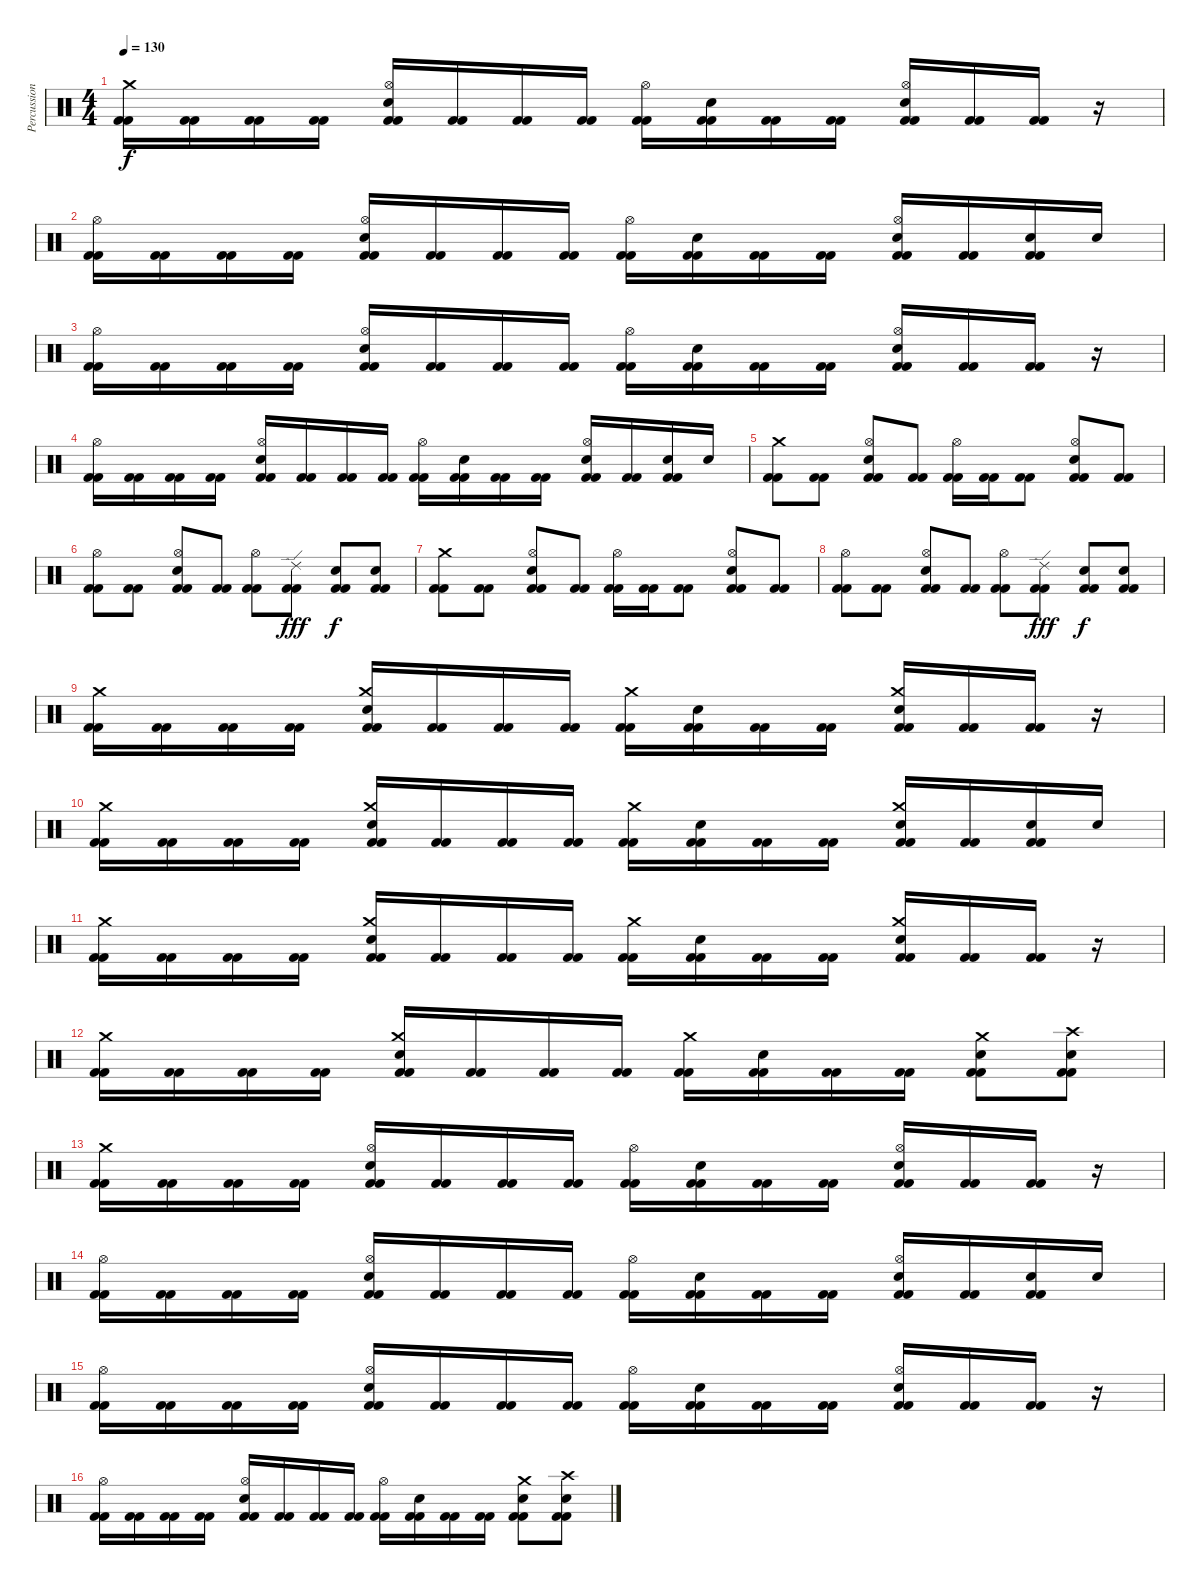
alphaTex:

\track ("Percussion" "Percussion") {instrument percussion}
\staff {score}
\articulation defaults
\ts (4 4)
\tempo 130
\clef neutral
\ks c
("Kick (hit) 2" "Kick (hit) 2" "Crash medium (hit)").16{dy f} ("Kick (hit) 2" "Kick (hit) 2").16 ("Kick (hit) 2" "Kick (hit) 2").16 ("Kick (hit) 2" "Kick (hit) 2").16 ("Kick (hit) 2" "Kick (hit) 2" "Hi-Hat (open)" "Electric Snare (hit)").16 ("Kick (hit) 2" "Kick (hit) 2").16 ("Kick (hit) 2" "Kick (hit) 2").16 ("Kick (hit) 2" "Kick (hit) 2").16 ("Kick (hit) 2" "Kick (hit) 2" "Hi-Hat (open)").16 ("Kick (hit) 2" "Kick (hit) 2" "Electric Snare (hit)").16 ("Kick (hit) 2" "Kick (hit) 2").16 ("Kick (hit) 2" "Kick (hit) 2").16 ("Kick (hit) 2" "Kick (hit) 2" "Hi-Hat (open)" "Electric Snare (hit)").16 ("Kick (hit) 2" "Kick (hit) 2").16 ("Kick (hit) 2" "Kick (hit) 2").16 r.16 |
("Kick (hit) 2" "Kick (hit) 2" "Hi-Hat (open)").16 ("Kick (hit) 2" "Kick (hit) 2").16 ("Kick (hit) 2" "Kick (hit) 2").16 ("Kick (hit) 2" "Kick (hit) 2").16 ("Kick (hit) 2" "Kick (hit) 2" "Hi-Hat (open)" "Electric Snare (hit)").16 ("Kick (hit) 2" "Kick (hit) 2").16 ("Kick (hit) 2" "Kick (hit) 2").16 ("Kick (hit) 2" "Kick (hit) 2").16 ("Kick (hit) 2" "Kick (hit) 2" "Hi-Hat (open)").16 ("Kick (hit) 2" "Kick (hit) 2" "Electric Snare (hit)").16 ("Kick (hit) 2" "Kick (hit) 2").16 ("Kick (hit) 2" "Kick (hit) 2").16 ("Kick (hit) 2" "Kick (hit) 2" "Hi-Hat (open)" "Electric Snare (hit)").16 ("Kick (hit) 2" "Kick (hit) 2").16 ("Kick (hit) 2" "Kick (hit) 2" "Electric Snare (hit)").16 "Electric Snare (hit)".16 |
("Kick (hit) 2" "Kick (hit) 2" "Hi-Hat (open)").16 ("Kick (hit) 2" "Kick (hit) 2").16 ("Kick (hit) 2" "Kick (hit) 2").16 ("Kick (hit) 2" "Kick (hit) 2").16 ("Kick (hit) 2" "Kick (hit) 2" "Hi-Hat (open)" "Electric Snare (hit)").16 ("Kick (hit) 2" "Kick (hit) 2").16 ("Kick (hit) 2" "Kick (hit) 2").16 ("Kick (hit) 2" "Kick (hit) 2").16 ("Kick (hit) 2" "Kick (hit) 2" "Hi-Hat (open)").16 ("Kick (hit) 2" "Kick (hit) 2" "Electric Snare (hit)").16 ("Kick (hit) 2" "Kick (hit) 2").16 ("Kick (hit) 2" "Kick (hit) 2").16 ("Kick (hit) 2" "Kick (hit) 2" "Hi-Hat (open)" "Electric Snare (hit)").16 ("Kick (hit) 2" "Kick (hit) 2").16 ("Kick (hit) 2" "Kick (hit) 2").16 r.16 |
("Kick (hit) 2" "Kick (hit) 2" "Hi-Hat (open)").16 ("Kick (hit) 2" "Kick (hit) 2").16 ("Kick (hit) 2" "Kick (hit) 2").16 ("Kick (hit) 2" "Kick (hit) 2").16 ("Kick (hit) 2" "Kick (hit) 2" "Hi-Hat (open)" "Electric Snare (hit)").16 ("Kick (hit) 2" "Kick (hit) 2").16 ("Kick (hit) 2" "Kick (hit) 2").16 ("Kick (hit) 2" "Kick (hit) 2").16 ("Kick (hit) 2" "Kick (hit) 2" "Hi-Hat (open)").16 ("Kick (hit) 2" "Kick (hit) 2" "Electric Snare (hit)").16 ("Kick (hit) 2" "Kick (hit) 2").16 ("Kick (hit) 2" "Kick (hit) 2").16 ("Kick (hit) 2" "Kick (hit) 2" "Hi-Hat (open)" "Electric Snare (hit)").16 ("Kick (hit) 2" "Kick (hit) 2").16 ("Kick (hit) 2" "Kick (hit) 2" "Electric Snare (hit)").16 "Electric Snare (hit)".16 |
("Kick (hit) 2" "Kick (hit) 2" "Crash medium (hit)").8 ("Kick (hit) 2" "Kick (hit) 2").8 ("Kick (hit) 2" "Kick (hit) 2" "Hi-Hat (open)" "Electric Snare (hit)").8 ("Kick (hit) 2" "Kick (hit) 2").8 ("Kick (hit) 2" "Kick (hit) 2" "Hi-Hat (open)").16 ("Kick (hit) 2" "Kick (hit) 2").16 ("Kick (hit) 2" "Kick (hit) 2").8 ("Kick (hit) 2" "Kick (hit) 2" "Hi-Hat (open)" "Electric Snare (hit)").8 ("Kick (hit) 2" "Kick (hit) 2").8 |
("Kick (hit) 2" "Kick (hit) 2" "Hi-Hat (open)").8 ("Kick (hit) 2" "Kick (hit) 2").8 ("Kick (hit) 2" "Kick (hit) 2" "Hi-Hat (open)" "Electric Snare (hit)").8 ("Kick (hit) 2" "Kick (hit) 2").8 ("Kick (hit) 2" "Kick (hit) 2" "Hi-Hat (open)").8 ("Kick (hit) 2" "Kick (hit) 2" "Ride (edge) 2").8{dy fff} ("Kick (hit) 2" "Kick (hit) 2" "Electric Snare (hit)").8{dy f} ("Kick (hit) 2" "Kick (hit) 2" "Electric Snare (hit)").8 |
("Kick (hit) 2" "Kick (hit) 2" "Crash medium (hit)").8 ("Kick (hit) 2" "Kick (hit) 2").8 ("Kick (hit) 2" "Kick (hit) 2" "Hi-Hat (open)" "Electric Snare (hit)").8 ("Kick (hit) 2" "Kick (hit) 2").8 ("Kick (hit) 2" "Kick (hit) 2" "Hi-Hat (open)").16 ("Kick (hit) 2" "Kick (hit) 2").16 ("Kick (hit) 2" "Kick (hit) 2").8 ("Kick (hit) 2" "Kick (hit) 2" "Hi-Hat (open)" "Electric Snare (hit)").8 ("Kick (hit) 2" "Kick (hit) 2").8 |
("Kick (hit) 2" "Kick (hit) 2" "Hi-Hat (open)").8 ("Kick (hit) 2" "Kick (hit) 2").8 ("Kick (hit) 2" "Kick (hit) 2" "Hi-Hat (open)" "Electric Snare (hit)").8 ("Kick (hit) 2" "Kick (hit) 2").8 ("Kick (hit) 2" "Kick (hit) 2" "Hi-Hat (open)").8 ("Kick (hit) 2" "Kick (hit) 2" "Ride (edge) 2").8{dy fff} ("Kick (hit) 2" "Kick (hit) 2" "Electric Snare (hit)").8{dy f} ("Kick (hit) 2" "Kick (hit) 2" "Electric Snare (hit)").8 |
("Kick (hit) 2" "Kick (hit) 2" "Crash medium (hit)").16 ("Kick (hit) 2" "Kick (hit) 2").16 ("Kick (hit) 2" "Kick (hit) 2").16 ("Kick (hit) 2" "Kick (hit) 2").16 ("Kick (hit) 2" "Kick (hit) 2" "Crash medium (hit)" "Electric Snare (hit)").16 ("Kick (hit) 2" "Kick (hit) 2").16 ("Kick (hit) 2" "Kick (hit) 2").16 ("Kick (hit) 2" "Kick (hit) 2").16 ("Kick (hit) 2" "Kick (hit) 2" "Crash medium (hit)").16 ("Kick (hit) 2" "Kick (hit) 2" "Electric Snare (hit)").16 ("Kick (hit) 2" "Kick (hit) 2").16 ("Kick (hit) 2" "Kick (hit) 2").16 ("Kick (hit) 2" "Kick (hit) 2" "Crash medium (hit)" "Electric Snare (hit)").16 ("Kick (hit) 2" "Kick (hit) 2").16 ("Kick (hit) 2" "Kick (hit) 2").16 r.16 |
("Kick (hit) 2" "Kick (hit) 2" "Crash medium (hit)").16 ("Kick (hit) 2" "Kick (hit) 2").16 ("Kick (hit) 2" "Kick (hit) 2").16 ("Kick (hit) 2" "Kick (hit) 2").16 ("Kick (hit) 2" "Kick (hit) 2" "Crash medium (hit)" "Electric Snare (hit)").16 ("Kick (hit) 2" "Kick (hit) 2").16 ("Kick (hit) 2" "Kick (hit) 2").16 ("Kick (hit) 2" "Kick (hit) 2").16 ("Kick (hit) 2" "Kick (hit) 2" "Crash medium (hit)").16 ("Kick (hit) 2" "Kick (hit) 2" "Electric Snare (hit)").16 ("Kick (hit) 2" "Kick (hit) 2").16 ("Kick (hit) 2" "Kick (hit) 2").16 ("Kick (hit) 2" "Kick (hit) 2" "Crash medium (hit)" "Electric Snare (hit)").16 ("Kick (hit) 2" "Kick (hit) 2").16 ("Kick (hit) 2" "Kick (hit) 2" "Electric Snare (hit)").16 "Electric Snare (hit)".16 |
("Kick (hit) 2" "Kick (hit) 2" "Crash medium (hit)").16 ("Kick (hit) 2" "Kick (hit) 2").16 ("Kick (hit) 2" "Kick (hit) 2").16 ("Kick (hit) 2" "Kick (hit) 2").16 ("Kick (hit) 2" "Kick (hit) 2" "Crash medium (hit)" "Electric Snare (hit)").16 ("Kick (hit) 2" "Kick (hit) 2").16 ("Kick (hit) 2" "Kick (hit) 2").16 ("Kick (hit) 2" "Kick (hit) 2").16 ("Kick (hit) 2" "Kick (hit) 2" "Crash medium (hit)").16 ("Kick (hit) 2" "Kick (hit) 2" "Electric Snare (hit)").16 ("Kick (hit) 2" "Kick (hit) 2").16 ("Kick (hit) 2" "Kick (hit) 2").16 ("Kick (hit) 2" "Kick (hit) 2" "Crash medium (hit)" "Electric Snare (hit)").16 ("Kick (hit) 2" "Kick (hit) 2").16 ("Kick (hit) 2" "Kick (hit) 2").16 r.16 |
("Kick (hit) 2" "Kick (hit) 2" "Crash medium (hit)").16 ("Kick (hit) 2" "Kick (hit) 2").16 ("Kick (hit) 2" "Kick (hit) 2").16 ("Kick (hit) 2" "Kick (hit) 2").16 ("Kick (hit) 2" "Kick (hit) 2" "Crash medium (hit)" "Electric Snare (hit)").16 ("Kick (hit) 2" "Kick (hit) 2").16 ("Kick (hit) 2" "Kick (hit) 2").16 ("Kick (hit) 2" "Kick (hit) 2").16 ("Kick (hit) 2" "Kick (hit) 2" "Crash medium (hit)").16 ("Kick (hit) 2" "Kick (hit) 2" "Electric Snare (hit)").16 ("Kick (hit) 2" "Kick (hit) 2").16 ("Kick (hit) 2" "Kick (hit) 2").16 ("Kick (hit) 2" "Kick (hit) 2" "Crash medium (hit)" "Electric Snare (hit)").8 ("Kick (hit) 2" "Kick (hit) 2" "Crash high (hit)" "Electric Snare (hit)").8 |
("Kick (hit) 2" "Kick (hit) 2" "Crash medium (hit)").16 ("Kick (hit) 2" "Kick (hit) 2").16 ("Kick (hit) 2" "Kick (hit) 2").16 ("Kick (hit) 2" "Kick (hit) 2").16 ("Kick (hit) 2" "Kick (hit) 2" "Hi-Hat (open)" "Electric Snare (hit)").16 ("Kick (hit) 2" "Kick (hit) 2").16 ("Kick (hit) 2" "Kick (hit) 2").16 ("Kick (hit) 2" "Kick (hit) 2").16 ("Kick (hit) 2" "Kick (hit) 2" "Hi-Hat (open)").16 ("Kick (hit) 2" "Kick (hit) 2" "Electric Snare (hit)").16 ("Kick (hit) 2" "Kick (hit) 2").16 ("Kick (hit) 2" "Kick (hit) 2").16 ("Kick (hit) 2" "Kick (hit) 2" "Hi-Hat (open)" "Electric Snare (hit)").16 ("Kick (hit) 2" "Kick (hit) 2").16 ("Kick (hit) 2" "Kick (hit) 2").16 r.16 |
("Kick (hit) 2" "Kick (hit) 2" "Hi-Hat (open)").16 ("Kick (hit) 2" "Kick (hit) 2").16 ("Kick (hit) 2" "Kick (hit) 2").16 ("Kick (hit) 2" "Kick (hit) 2").16 ("Kick (hit) 2" "Kick (hit) 2" "Hi-Hat (open)" "Electric Snare (hit)").16 ("Kick (hit) 2" "Kick (hit) 2").16 ("Kick (hit) 2" "Kick (hit) 2").16 ("Kick (hit) 2" "Kick (hit) 2").16 ("Kick (hit) 2" "Kick (hit) 2" "Hi-Hat (open)").16 ("Kick (hit) 2" "Kick (hit) 2" "Electric Snare (hit)").16 ("Kick (hit) 2" "Kick (hit) 2").16 ("Kick (hit) 2" "Kick (hit) 2").16 ("Kick (hit) 2" "Kick (hit) 2" "Hi-Hat (open)" "Electric Snare (hit)").16 ("Kick (hit) 2" "Kick (hit) 2").16 ("Kick (hit) 2" "Kick (hit) 2" "Electric Snare (hit)").16 "Electric Snare (hit)".16 |
("Kick (hit) 2" "Kick (hit) 2" "Hi-Hat (open)").16 ("Kick (hit) 2" "Kick (hit) 2").16 ("Kick (hit) 2" "Kick (hit) 2").16 ("Kick (hit) 2" "Kick (hit) 2").16 ("Kick (hit) 2" "Kick (hit) 2" "Hi-Hat (open)" "Electric Snare (hit)").16 ("Kick (hit) 2" "Kick (hit) 2").16 ("Kick (hit) 2" "Kick (hit) 2").16 ("Kick (hit) 2" "Kick (hit) 2").16 ("Kick (hit) 2" "Kick (hit) 2" "Hi-Hat (open)").16 ("Kick (hit) 2" "Kick (hit) 2" "Electric Snare (hit)").16 ("Kick (hit) 2" "Kick (hit) 2").16 ("Kick (hit) 2" "Kick (hit) 2").16 ("Kick (hit) 2" "Kick (hit) 2" "Hi-Hat (open)" "Electric Snare (hit)").16 ("Kick (hit) 2" "Kick (hit) 2").16 ("Kick (hit) 2" "Kick (hit) 2").16 r.16 |
("Kick (hit) 2" "Kick (hit) 2" "Hi-Hat (open)").16 ("Kick (hit) 2" "Kick (hit) 2").16 ("Kick (hit) 2" "Kick (hit) 2").16 ("Kick (hit) 2" "Kick (hit) 2").16 ("Kick (hit) 2" "Kick (hit) 2" "Hi-Hat (open)" "Electric Snare (hit)").16 ("Kick (hit) 2" "Kick (hit) 2").16 ("Kick (hit) 2" "Kick (hit) 2").16 ("Kick (hit) 2" "Kick (hit) 2").16 ("Kick (hit) 2" "Kick (hit) 2" "Hi-Hat (open)").16 ("Kick (hit) 2" "Kick (hit) 2" "Electric Snare (hit)").16 ("Kick (hit) 2" "Kick (hit) 2").16 ("Kick (hit) 2" "Kick (hit) 2").16 ("Kick (hit) 2" "Kick (hit) 2" "Crash medium (hit)" "Electric Snare (hit)").8 ("Kick (hit) 2" "Kick (hit) 2" "Crash high (hit)" "Electric Snare (hit)").8
